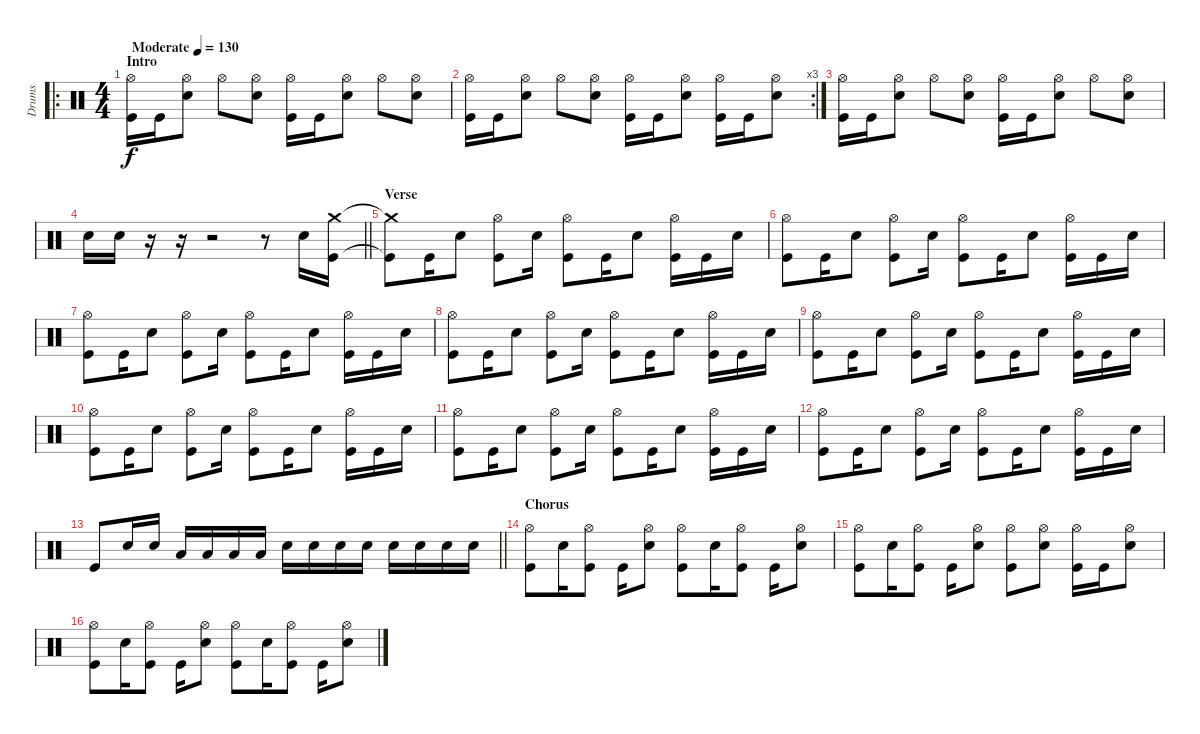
\track ("Drums" "Drums") {instrument percussion}
\staff {score}
\articulation defaults
\ro
\ts (4 4)
\section ("" "Intro")
\tempo (130 "Moderate")
\clef neutral
\ks c
("Hi-Hat (open)" "Kick (hit)").16{dy f} "Kick (hit)".16 ("Hi-Hat (open)" "Snare (hit) 2").8 "Hi-Hat (open)".8 ("Hi-Hat (open)" "Snare (hit) 2").8 ("Hi-Hat (open)" "Kick (hit)").16 "Kick (hit)".16 ("Hi-Hat (open)" "Snare (hit) 2").8 "Hi-Hat (open)".8 ("Hi-Hat (open)" "Snare (hit) 2").8 |
\rc 3
("Hi-Hat (open)" "Kick (hit)").16 "Kick (hit)".16 ("Hi-Hat (open)" "Snare (hit) 2").8 "Hi-Hat (open)".8 ("Hi-Hat (open)" "Snare (hit) 2").8 ("Hi-Hat (open)" "Kick (hit)").16 "Kick (hit)".16 ("Hi-Hat (open)" "Snare (hit) 2").8 ("Hi-Hat (open)" "Kick (hit)").16 "Kick (hit)".16 ("Hi-Hat (open)" "Snare (hit) 2").8 |
("Hi-Hat (open)" "Kick (hit)").16 "Kick (hit)".16 ("Hi-Hat (open)" "Snare (hit) 2").8 "Hi-Hat (open)".8 ("Hi-Hat (open)" "Snare (hit) 2").8 ("Hi-Hat (open)" "Kick (hit)").16 "Kick (hit)".16 ("Hi-Hat (open)" "Snare (hit) 2").8 "Hi-Hat (open)".8 ("Hi-Hat (open)" "Snare (hit) 2").8 |
\barLineRight lightlight "Snare (hit) 2".16 "Snare (hit) 2".16
r.16 r.16 r.2 r.8 "Snare (hit) 2".16 ("Crash medium (hit)" "Kick (hit)").16 |
\section ("" "Verse")
("Crash medium (hit)"{t} "Kick (hit)"{t}).8 "Kick (hit)".16 "Snare (hit) 2".8 ("Hi-Hat (open)" "Kick (hit)").8 "Snare (hit) 2".16 ("Hi-Hat (open)" "Kick (hit)").8 "Kick (hit)".16 "Snare (hit) 2".8 ("Hi-Hat (open)" "Kick (hit)").16 "Kick (hit)".16 "Snare (hit) 2".16 |
("Hi-Hat (open)" "Kick (hit)").8 "Kick (hit)".16 "Snare (hit) 2".8 ("Hi-Hat (open)" "Kick (hit)").8 "Snare (hit) 2".16 ("Hi-Hat (open)" "Kick (hit)").8 "Kick (hit)".16 "Snare (hit) 2".8 ("Hi-Hat (open)" "Kick (hit)").16 "Kick (hit)".16 "Snare (hit) 2".16 |
("Hi-Hat (open)" "Kick (hit)").8 "Kick (hit)".16 "Snare (hit) 2".8 ("Hi-Hat (open)" "Kick (hit)").8 "Snare (hit) 2".16 ("Hi-Hat (open)" "Kick (hit)").8 "Kick (hit)".16 "Snare (hit) 2".8 ("Hi-Hat (open)" "Kick (hit)").16 "Kick (hit)".16 "Snare (hit) 2".16 |
("Hi-Hat (open)" "Kick (hit)").8 "Kick (hit)".16 "Snare (hit) 2".8 ("Hi-Hat (open)" "Kick (hit)").8 "Snare (hit) 2".16 ("Hi-Hat (open)" "Kick (hit)").8 "Kick (hit)".16 "Snare (hit) 2".8 ("Hi-Hat (open)" "Kick (hit)").16 "Kick (hit)".16 "Snare (hit) 2".16 |
("Hi-Hat (open)" "Kick (hit)").8 "Kick (hit)".16 "Snare (hit) 2".8 ("Hi-Hat (open)" "Kick (hit)").8 "Snare (hit) 2".16 ("Hi-Hat (open)" "Kick (hit)").8 "Kick (hit)".16 "Snare (hit) 2".8 ("Hi-Hat (open)" "Kick (hit)").16 "Kick (hit)".16 "Snare (hit) 2".16 |
("Hi-Hat (open)" "Kick (hit)").8 "Kick (hit)".16 "Snare (hit) 2".8 ("Hi-Hat (open)" "Kick (hit)").8 "Snare (hit) 2".16 ("Hi-Hat (open)" "Kick (hit)").8 "Kick (hit)".16 "Snare (hit) 2".8 ("Hi-Hat (open)" "Kick (hit)").16 "Kick (hit)".16 "Snare (hit) 2".16 |
("Hi-Hat (open)" "Kick (hit)").8 "Kick (hit)".16 "Snare (hit) 2".8 ("Hi-Hat (open)" "Kick (hit)").8 "Snare (hit) 2".16 ("Hi-Hat (open)" "Kick (hit)").8 "Kick (hit)".16 "Snare (hit) 2".8 ("Hi-Hat (open)" "Kick (hit)").16 "Kick (hit)".16 "Snare (hit) 2".16 |
("Hi-Hat (open)" "Kick (hit)").8 "Kick (hit)".16 "Snare (hit) 2".8 ("Hi-Hat (open)" "Kick (hit)").8 "Snare (hit) 2".16 ("Hi-Hat (open)" "Kick (hit)").8 "Kick (hit)".16 "Snare (hit) 2".8 ("Hi-Hat (open)" "Kick (hit)").16 "Kick (hit)".16 "Snare (hit) 2".16 |
\barLineRight lightlight "Kick (hit)".8 "Snare (hit) 2".16 "Snare (hit) 2".16 "Low Tom (hit)".16 "Low Tom (hit)".16 "Low Floor Tom (hit)".16 "Low Floor Tom (hit)".16 "Snare (hit) 2".16 "Snare (hit) 2".16 "Snare (hit) 2".16 "Snare (hit) 2".16 "Snare (hit) 2".16 "Snare (hit) 2".16 "Snare (hit) 2".16 "Snare (hit) 2".16
|
\section ("" "Chorus")
("Hi-Hat (open)" "Kick (hit)").8 "Snare (hit) 2".16 ("Hi-Hat (open)" "Kick (hit)").8 "Kick (hit)".16 ("Hi-Hat (open)" "Snare (hit) 2").8 ("Hi-Hat (open)" "Kick (hit)").8 "Snare (hit) 2".16 ("Hi-Hat (open)" "Kick (hit)").8 "Kick (hit)".16 ("Hi-Hat (open)" "Snare (hit) 2").8 |
("Hi-Hat (open)" "Kick (hit)").8 "Snare (hit) 2".16 ("Hi-Hat (open)" "Kick (hit)").8 "Kick (hit)".16 ("Hi-Hat (open)" "Snare (hit) 2").8 ("Hi-Hat (open)" "Kick (hit)").8 ("Hi-Hat (open)" "Snare (hit) 2").8 ("Hi-Hat (open)" "Kick (hit)").16 "Kick (hit)".16 ("Hi-Hat (open)" "Snare (hit) 2").8 |
("Hi-Hat (open)" "Kick (hit)").8 "Snare (hit) 2".16 ("Hi-Hat (open)" "Kick (hit)").8 "Kick (hit)".16 ("Hi-Hat (open)" "Snare (hit) 2").8 ("Hi-Hat (open)" "Kick (hit)").8 "Snare (hit) 2".16 ("Hi-Hat (open)" "Kick (hit)").8 "Kick (hit)".16 ("Hi-Hat (open)" "Snare (hit) 2").8
